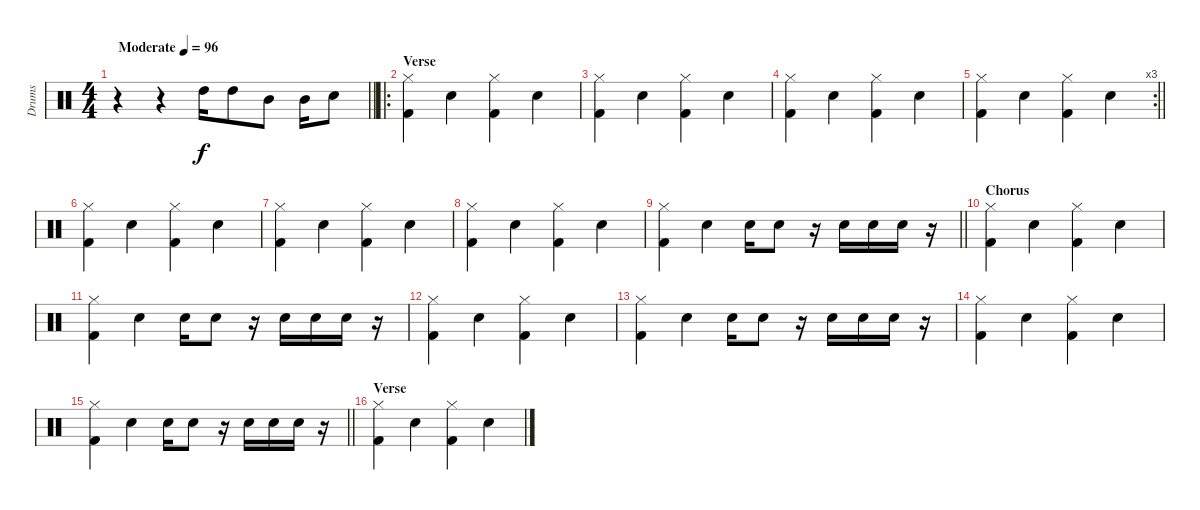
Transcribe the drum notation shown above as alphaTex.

\track ("Drums" "Drums") {instrument percussion}
\staff {score}
\articulation defaults
\ts (4 4)
\tempo (96 "Moderate")
\clef neutral
\barLineRight lightlight
\ks c
r.4{dy f} r.4 "High Tom (hit)".16 "High Tom (hit)".8 "Mid Tom (hit)".8 "Mid Tom (hit)".16 "Snare (hit) 2".8 |
\ro
\section ("" "Verse")
("Hi-Hat (closed)" "Kick (hit) 2").4 "Snare (hit) 2".4 ("Hi-Hat (closed)" "Kick (hit) 2").4 "Snare (hit) 2".4 |
("Hi-Hat (closed)" "Kick (hit) 2").4 "Snare (hit) 2".4 ("Hi-Hat (closed)" "Kick (hit) 2").4 "Snare (hit) 2".4 |
("Hi-Hat (closed)" "Kick (hit) 2").4 "Snare (hit) 2".4 ("Hi-Hat (closed)" "Kick (hit) 2").4 "Snare (hit) 2".4 |
\rc 3
\barLineRight lightlight
("Hi-Hat (closed)" "Kick (hit) 2").4 "Snare (hit) 2".4 ("Hi-Hat (closed)" "Kick (hit) 2").4 "Snare (hit) 2".4 |
("Hi-Hat (closed)" "Kick (hit) 2").4 "Snare (hit) 2".4 ("Hi-Hat (closed)" "Kick (hit) 2").4 "Snare (hit) 2".4 |
("Hi-Hat (closed)" "Kick (hit) 2").4 "Snare (hit) 2".4 ("Hi-Hat (closed)" "Kick (hit) 2").4 "Snare (hit) 2".4 |
("Hi-Hat (closed)" "Kick (hit) 2").4 "Snare (hit) 2".4 ("Hi-Hat (closed)" "Kick (hit) 2").4 "Snare (hit) 2".4 |
\barLineRight lightlight
("Hi-Hat (closed)" "Kick (hit) 2").4 "Snare (hit) 2".4 "Snare (hit) 2".16 "Snare (hit) 2".8 r.16 "Snare (hit) 2".16 "Snare (hit) 2".16 "Snare (hit) 2".16 r.16 |
\section ("" "Chorus")
("Hi-Hat (closed)" "Kick (hit) 2").4 "Snare (hit) 2".4 ("Hi-Hat (closed)" "Kick (hit) 2").4 "Snare (hit) 2".4 |
("Hi-Hat (closed)" "Kick (hit) 2").4 "Snare (hit) 2".4 "Snare (hit) 2".16 "Snare (hit) 2".8 r.16 "Snare (hit) 2".16 "Snare (hit) 2".16 "Snare (hit) 2".16 r.16 |
("Hi-Hat (closed)" "Kick (hit) 2").4 "Snare (hit) 2".4 ("Hi-Hat (closed)" "Kick (hit) 2").4 "Snare (hit) 2".4 |
("Hi-Hat (closed)" "Kick (hit) 2").4 "Snare (hit) 2".4 "Snare (hit) 2".16 "Snare (hit) 2".8 r.16 "Snare (hit) 2".16 "Snare (hit) 2".16 "Snare (hit) 2".16 r.16 |
("Hi-Hat (closed)" "Kick (hit) 2").4 "Snare (hit) 2".4 ("Hi-Hat (closed)" "Kick (hit) 2").4 "Snare (hit) 2".4 |
\barLineRight lightlight
("Hi-Hat (closed)" "Kick (hit) 2").4 "Snare (hit) 2".4 "Snare (hit) 2".16 "Snare (hit) 2".8 r.16 "Snare (hit) 2".16 "Snare (hit) 2".16 "Snare (hit) 2".16 r.16 |
\section ("" "Verse")
("Hi-Hat (closed)" "Kick (hit) 2").4 "Snare (hit) 2".4 ("Hi-Hat (closed)" "Kick (hit) 2").4 "Snare (hit) 2".4
